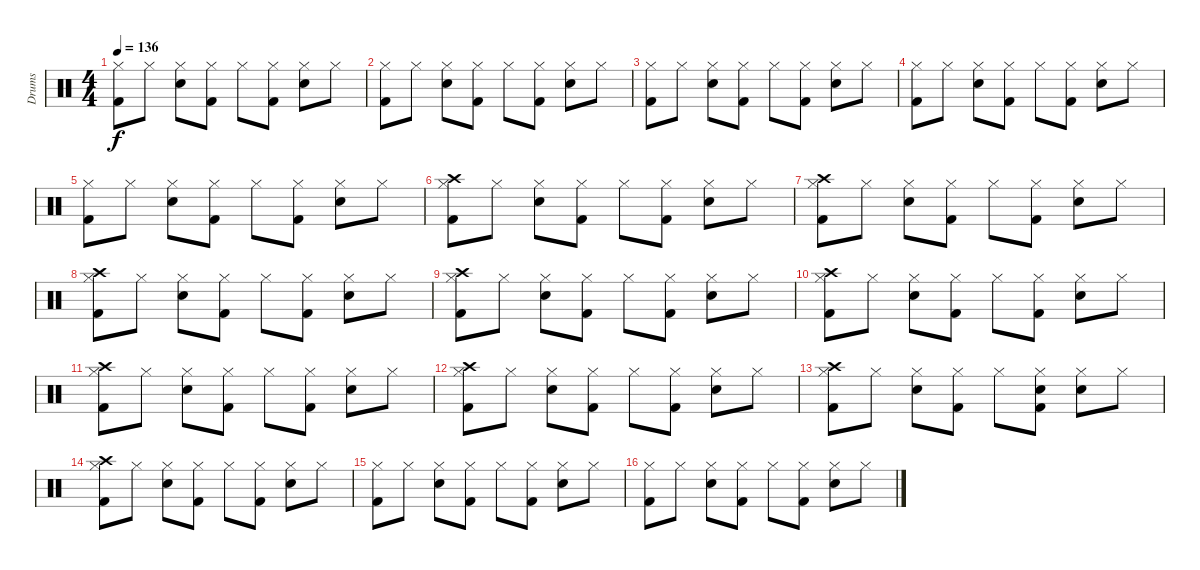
\track ("Drums" "Drums") {instrument percussion}
\staff {score}
\articulation defaults
\ts (4 4)
\tempo 136
\clef neutral
\ks c
("Hi-Hat (closed)" "Kick (hit) 2").8{dy f} "Hi-Hat (closed)".8 ("Hi-Hat (closed)" "Snare (hit) 2").8 ("Hi-Hat (closed)" "Kick (hit) 2").8 "Hi-Hat (closed)".8 ("Hi-Hat (closed)" "Kick (hit) 2").8 ("Hi-Hat (closed)" "Snare (hit) 2").8 "Hi-Hat (closed)".8 |
("Hi-Hat (closed)" "Kick (hit) 2").8 "Hi-Hat (closed)".8 ("Hi-Hat (closed)" "Snare (hit) 2").8 ("Hi-Hat (closed)" "Kick (hit) 2").8 "Hi-Hat (closed)".8 ("Hi-Hat (closed)" "Kick (hit) 2").8 ("Hi-Hat (closed)" "Snare (hit) 2").8 "Hi-Hat (closed)".8 |
("Hi-Hat (closed)" "Kick (hit) 2").8 "Hi-Hat (closed)".8 ("Hi-Hat (closed)" "Snare (hit) 2").8 ("Hi-Hat (closed)" "Kick (hit) 2").8 "Hi-Hat (closed)".8 ("Hi-Hat (closed)" "Kick (hit) 2").8 ("Hi-Hat (closed)" "Snare (hit) 2").8 "Hi-Hat (closed)".8 |
("Hi-Hat (closed)" "Kick (hit) 2").8 "Hi-Hat (closed)".8 ("Hi-Hat (closed)" "Snare (hit) 2").8 ("Hi-Hat (closed)" "Kick (hit) 2").8 "Hi-Hat (closed)".8 ("Hi-Hat (closed)" "Kick (hit) 2").8 ("Hi-Hat (closed)" "Snare (hit) 2").8 "Hi-Hat (closed)".8 |
("Hi-Hat (closed)" "Kick (hit) 2").8 "Hi-Hat (closed)".8 ("Hi-Hat (closed)" "Snare (hit) 2").8 ("Hi-Hat (closed)" "Kick (hit) 2").8 "Hi-Hat (closed)".8 ("Hi-Hat (closed)" "Kick (hit) 2").8 ("Hi-Hat (closed)" "Snare (hit) 2").8 "Hi-Hat (closed)".8 |
("Crash high (hit)" "Hi-Hat (closed)" "Kick (hit) 2").8 "Hi-Hat (closed)".8 ("Hi-Hat (closed)" "Snare (hit) 2").8 ("Hi-Hat (closed)" "Kick (hit) 2").8 "Hi-Hat (closed)".8 ("Hi-Hat (closed)" "Kick (hit) 2").8 ("Hi-Hat (closed)" "Snare (hit) 2").8 "Hi-Hat (closed)".8 |
("Crash high (hit)" "Hi-Hat (closed)" "Kick (hit) 2").8 "Hi-Hat (closed)".8 ("Hi-Hat (closed)" "Snare (hit) 2").8 ("Hi-Hat (closed)" "Kick (hit) 2").8 "Hi-Hat (closed)".8 ("Hi-Hat (closed)" "Kick (hit) 2").8 ("Hi-Hat (closed)" "Snare (hit) 2").8 "Hi-Hat (closed)".8 |
("Crash high (hit)" "Hi-Hat (closed)" "Kick (hit) 2").8 "Hi-Hat (closed)".8 ("Hi-Hat (closed)" "Snare (hit) 2").8 ("Hi-Hat (closed)" "Kick (hit) 2").8 "Hi-Hat (closed)".8 ("Hi-Hat (closed)" "Kick (hit) 2").8 ("Hi-Hat (closed)" "Snare (hit) 2").8 "Hi-Hat (closed)".8 |
("Crash high (hit)" "Hi-Hat (closed)" "Kick (hit) 2").8 "Hi-Hat (closed)".8 ("Hi-Hat (closed)" "Snare (hit) 2").8 ("Hi-Hat (closed)" "Kick (hit) 2").8 "Hi-Hat (closed)".8 ("Hi-Hat (closed)" "Kick (hit) 2").8 ("Hi-Hat (closed)" "Snare (hit) 2").8 "Hi-Hat (closed)".8 |
("Crash high (hit)" "Hi-Hat (closed)" "Kick (hit) 2").8 "Hi-Hat (closed)".8 ("Hi-Hat (closed)" "Snare (hit) 2").8 ("Hi-Hat (closed)" "Kick (hit) 2").8 "Hi-Hat (closed)".8 ("Hi-Hat (closed)" "Kick (hit) 2").8 ("Hi-Hat (closed)" "Snare (hit) 2").8 "Hi-Hat (closed)".8 |
("Crash high (hit)" "Hi-Hat (closed)" "Kick (hit) 2").8 "Hi-Hat (closed)".8 ("Hi-Hat (closed)" "Snare (hit) 2").8 ("Hi-Hat (closed)" "Kick (hit) 2").8 "Hi-Hat (closed)".8 ("Hi-Hat (closed)" "Kick (hit) 2").8 ("Hi-Hat (closed)" "Snare (hit) 2").8 "Hi-Hat (closed)".8 |
("Crash high (hit)" "Hi-Hat (closed)" "Kick (hit) 2").8 "Hi-Hat (closed)".8 ("Hi-Hat (closed)" "Snare (hit) 2").8 ("Hi-Hat (closed)" "Kick (hit) 2").8 "Hi-Hat (closed)".8 ("Hi-Hat (closed)" "Kick (hit) 2").8 ("Hi-Hat (closed)" "Snare (hit) 2").8 "Hi-Hat (closed)".8 |
("Crash high (hit)" "Hi-Hat (closed)" "Kick (hit) 2").8 "Hi-Hat (closed)".8 ("Hi-Hat (closed)" "Snare (hit) 2").8 ("Hi-Hat (closed)" "Kick (hit) 2").8 "Hi-Hat (closed)".8 ("Hi-Hat (closed)" "Snare (hit) 2" "Kick (hit) 2").8 ("Hi-Hat (closed)" "Snare (hit) 2").8 "Hi-Hat (closed)".8 |
("Crash high (hit)" "Hi-Hat (closed)" "Kick (hit) 2").8 "Hi-Hat (closed)".8 ("Hi-Hat (closed)" "Snare (hit) 2").8 ("Hi-Hat (closed)" "Kick (hit) 2").8 "Hi-Hat (closed)".8 ("Hi-Hat (closed)" "Kick (hit) 2").8 ("Hi-Hat (closed)" "Snare (hit) 2").8 "Hi-Hat (closed)".8 |
("Hi-Hat (closed)" "Kick (hit) 2").8 "Hi-Hat (closed)".8 ("Hi-Hat (closed)" "Snare (hit) 2").8 ("Hi-Hat (closed)" "Kick (hit) 2").8 "Hi-Hat (closed)".8 ("Hi-Hat (closed)" "Kick (hit) 2").8 ("Hi-Hat (closed)" "Snare (hit) 2").8 "Hi-Hat (closed)".8 |
("Hi-Hat (closed)" "Kick (hit) 2").8 "Hi-Hat (closed)".8 ("Hi-Hat (closed)" "Snare (hit) 2").8 ("Hi-Hat (closed)" "Kick (hit) 2").8 "Hi-Hat (closed)".8 ("Hi-Hat (closed)" "Kick (hit) 2").8 ("Hi-Hat (closed)" "Snare (hit) 2").8 "Hi-Hat (closed)".8
